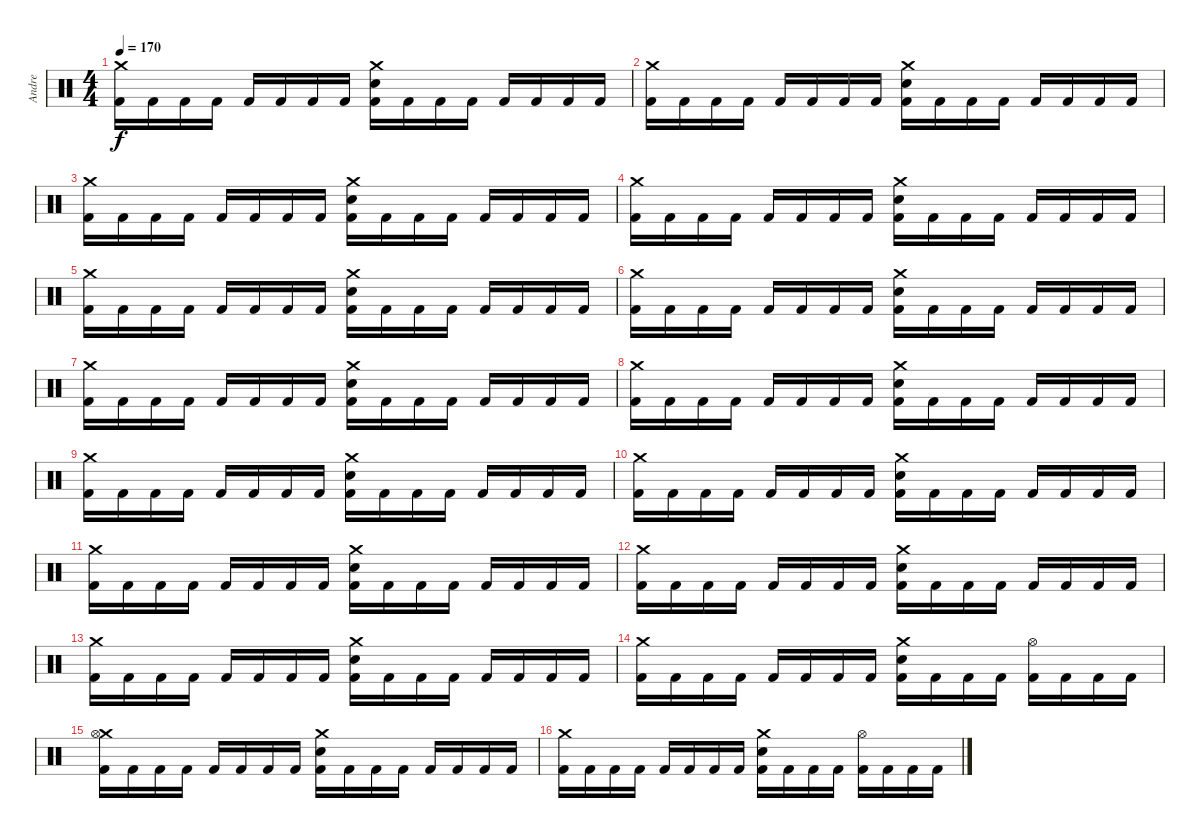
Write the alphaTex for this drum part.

\track ("Andre" "Andre") {instrument percussion}
\staff {score}
\articulation defaults
\ts (4 4)
\tempo 170
\clef neutral
\ks c
("Crash medium (hit)" "Kick (hit) 2").16{dy f} "Kick (hit) 2".16 "Kick (hit) 2".16 "Kick (hit) 2".16 "Kick (hit) 2".16 "Kick (hit) 2".16 "Kick (hit) 2".16 "Kick (hit) 2".16 ("Crash medium (hit)" "Snare (hit) 2" "Kick (hit) 2").16 "Kick (hit) 2".16 "Kick (hit) 2".16 "Kick (hit) 2".16 "Kick (hit) 2".16 "Kick (hit) 2".16 "Kick (hit) 2".16 "Kick (hit) 2".16 |
("Crash medium (hit)" "Kick (hit) 2").16 "Kick (hit) 2".16 "Kick (hit) 2".16 "Kick (hit) 2".16 "Kick (hit) 2".16 "Kick (hit) 2".16 "Kick (hit) 2".16 "Kick (hit) 2".16 ("Crash medium (hit)" "Snare (hit) 2" "Kick (hit) 2").16 "Kick (hit) 2".16 "Kick (hit) 2".16 "Kick (hit) 2".16 "Kick (hit) 2".16 "Kick (hit) 2".16 "Kick (hit) 2".16 "Kick (hit) 2".16 |
("Crash medium (hit)" "Kick (hit) 2").16 "Kick (hit) 2".16 "Kick (hit) 2".16 "Kick (hit) 2".16 "Kick (hit) 2".16 "Kick (hit) 2".16 "Kick (hit) 2".16 "Kick (hit) 2".16 ("Crash medium (hit)" "Snare (hit) 2" "Kick (hit) 2").16 "Kick (hit) 2".16 "Kick (hit) 2".16 "Kick (hit) 2".16 "Kick (hit) 2".16 "Kick (hit) 2".16 "Kick (hit) 2".16 "Kick (hit) 2".16 |
("Crash medium (hit)" "Kick (hit) 2").16 "Kick (hit) 2".16 "Kick (hit) 2".16 "Kick (hit) 2".16 "Kick (hit) 2".16 "Kick (hit) 2".16 "Kick (hit) 2".16 "Kick (hit) 2".16 ("Crash medium (hit)" "Snare (hit) 2" "Kick (hit) 2").16 "Kick (hit) 2".16 "Kick (hit) 2".16 "Kick (hit) 2".16 "Kick (hit) 2".16 "Kick (hit) 2".16 "Kick (hit) 2".16 "Kick (hit) 2".16 |
("Crash medium (hit)" "Kick (hit) 2").16 "Kick (hit) 2".16 "Kick (hit) 2".16 "Kick (hit) 2".16 "Kick (hit) 2".16 "Kick (hit) 2".16 "Kick (hit) 2".16 "Kick (hit) 2".16 ("Crash medium (hit)" "Snare (hit) 2" "Kick (hit) 2").16 "Kick (hit) 2".16 "Kick (hit) 2".16 "Kick (hit) 2".16 "Kick (hit) 2".16 "Kick (hit) 2".16 "Kick (hit) 2".16 "Kick (hit) 2".16 |
("Crash medium (hit)" "Kick (hit) 2").16 "Kick (hit) 2".16 "Kick (hit) 2".16 "Kick (hit) 2".16 "Kick (hit) 2".16 "Kick (hit) 2".16 "Kick (hit) 2".16 "Kick (hit) 2".16 ("Crash medium (hit)" "Snare (hit) 2" "Kick (hit) 2").16 "Kick (hit) 2".16 "Kick (hit) 2".16 "Kick (hit) 2".16 "Kick (hit) 2".16 "Kick (hit) 2".16 "Kick (hit) 2".16 "Kick (hit) 2".16 |
("Crash medium (hit)" "Kick (hit) 2").16 "Kick (hit) 2".16 "Kick (hit) 2".16 "Kick (hit) 2".16 "Kick (hit) 2".16 "Kick (hit) 2".16 "Kick (hit) 2".16 "Kick (hit) 2".16 ("Crash medium (hit)" "Snare (hit) 2" "Kick (hit) 2").16 "Kick (hit) 2".16 "Kick (hit) 2".16 "Kick (hit) 2".16 "Kick (hit) 2".16 "Kick (hit) 2".16 "Kick (hit) 2".16 "Kick (hit) 2".16 |
("Crash medium (hit)" "Kick (hit) 2").16 "Kick (hit) 2".16 "Kick (hit) 2".16 "Kick (hit) 2".16 "Kick (hit) 2".16 "Kick (hit) 2".16 "Kick (hit) 2".16 "Kick (hit) 2".16 ("Crash medium (hit)" "Snare (hit) 2" "Kick (hit) 2").16 "Kick (hit) 2".16 "Kick (hit) 2".16 "Kick (hit) 2".16 "Kick (hit) 2".16 "Kick (hit) 2".16 "Kick (hit) 2".16 "Kick (hit) 2".16 |
("Crash medium (hit)" "Kick (hit) 2").16 "Kick (hit) 2".16 "Kick (hit) 2".16 "Kick (hit) 2".16 "Kick (hit) 2".16 "Kick (hit) 2".16 "Kick (hit) 2".16 "Kick (hit) 2".16 ("Crash medium (hit)" "Snare (hit) 2" "Kick (hit) 2").16 "Kick (hit) 2".16 "Kick (hit) 2".16 "Kick (hit) 2".16 "Kick (hit) 2".16 "Kick (hit) 2".16 "Kick (hit) 2".16 "Kick (hit) 2".16 |
("Crash medium (hit)" "Kick (hit) 2").16 "Kick (hit) 2".16 "Kick (hit) 2".16 "Kick (hit) 2".16 "Kick (hit) 2".16 "Kick (hit) 2".16 "Kick (hit) 2".16 "Kick (hit) 2".16 ("Crash medium (hit)" "Snare (hit) 2" "Kick (hit) 2").16 "Kick (hit) 2".16 "Kick (hit) 2".16 "Kick (hit) 2".16 "Kick (hit) 2".16 "Kick (hit) 2".16 "Kick (hit) 2".16 "Kick (hit) 2".16 |
("Crash medium (hit)" "Kick (hit) 2").16 "Kick (hit) 2".16 "Kick (hit) 2".16 "Kick (hit) 2".16 "Kick (hit) 2".16 "Kick (hit) 2".16 "Kick (hit) 2".16 "Kick (hit) 2".16 ("Crash medium (hit)" "Snare (hit) 2" "Kick (hit) 2").16 "Kick (hit) 2".16 "Kick (hit) 2".16 "Kick (hit) 2".16 "Kick (hit) 2".16 "Kick (hit) 2".16 "Kick (hit) 2".16 "Kick (hit) 2".16 |
("Crash medium (hit)" "Kick (hit) 2").16 "Kick (hit) 2".16 "Kick (hit) 2".16 "Kick (hit) 2".16 "Kick (hit) 2".16 "Kick (hit) 2".16 "Kick (hit) 2".16 "Kick (hit) 2".16 ("Crash medium (hit)" "Snare (hit) 2" "Kick (hit) 2").16 "Kick (hit) 2".16 "Kick (hit) 2".16 "Kick (hit) 2".16 "Kick (hit) 2".16 "Kick (hit) 2".16 "Kick (hit) 2".16 "Kick (hit) 2".16 |
("Crash medium (hit)" "Kick (hit) 2").16 "Kick (hit) 2".16 "Kick (hit) 2".16 "Kick (hit) 2".16 "Kick (hit) 2".16 "Kick (hit) 2".16 "Kick (hit) 2".16 "Kick (hit) 2".16 ("Crash medium (hit)" "Snare (hit) 2" "Kick (hit) 2").16 "Kick (hit) 2".16 "Kick (hit) 2".16 "Kick (hit) 2".16 "Kick (hit) 2".16 "Kick (hit) 2".16 "Kick (hit) 2".16 "Kick (hit) 2".16 |
("Crash medium (hit)" "Kick (hit) 2").16 "Kick (hit) 2".16 "Kick (hit) 2".16 "Kick (hit) 2".16 "Kick (hit) 2".16 "Kick (hit) 2".16 "Kick (hit) 2".16 "Kick (hit) 2".16 ("Crash medium (hit)" "Snare (hit) 2" "Kick (hit) 2").16 "Kick (hit) 2".16 "Kick (hit) 2".16 "Kick (hit) 2".16 ("Hi-Hat (open)" "Kick (hit) 2").16 "Kick (hit) 2".16 "Kick (hit) 2".16 "Kick (hit) 2".16 |
("Crash medium (hit)" "Hi-Hat (open)" "Kick (hit) 2").16 "Kick (hit) 2".16 "Kick (hit) 2".16 "Kick (hit) 2".16 "Kick (hit) 2".16 "Kick (hit) 2".16 "Kick (hit) 2".16 "Kick (hit) 2".16 ("Crash medium (hit)" "Snare (hit) 2" "Kick (hit) 2").16 "Kick (hit) 2".16 "Kick (hit) 2".16 "Kick (hit) 2".16 "Kick (hit) 2".16 "Kick (hit) 2".16 "Kick (hit) 2".16 "Kick (hit) 2".16 |
("Crash medium (hit)" "Kick (hit) 2").16 "Kick (hit) 2".16 "Kick (hit) 2".16 "Kick (hit) 2".16 "Kick (hit) 2".16 "Kick (hit) 2".16 "Kick (hit) 2".16 "Kick (hit) 2".16 ("Crash medium (hit)" "Snare (hit) 2" "Kick (hit) 2").16 "Kick (hit) 2".16 "Kick (hit) 2".16 "Kick (hit) 2".16 ("Hi-Hat (open)" "Kick (hit) 2").16 "Kick (hit) 2".16 "Kick (hit) 2".16 "Kick (hit) 2".16
